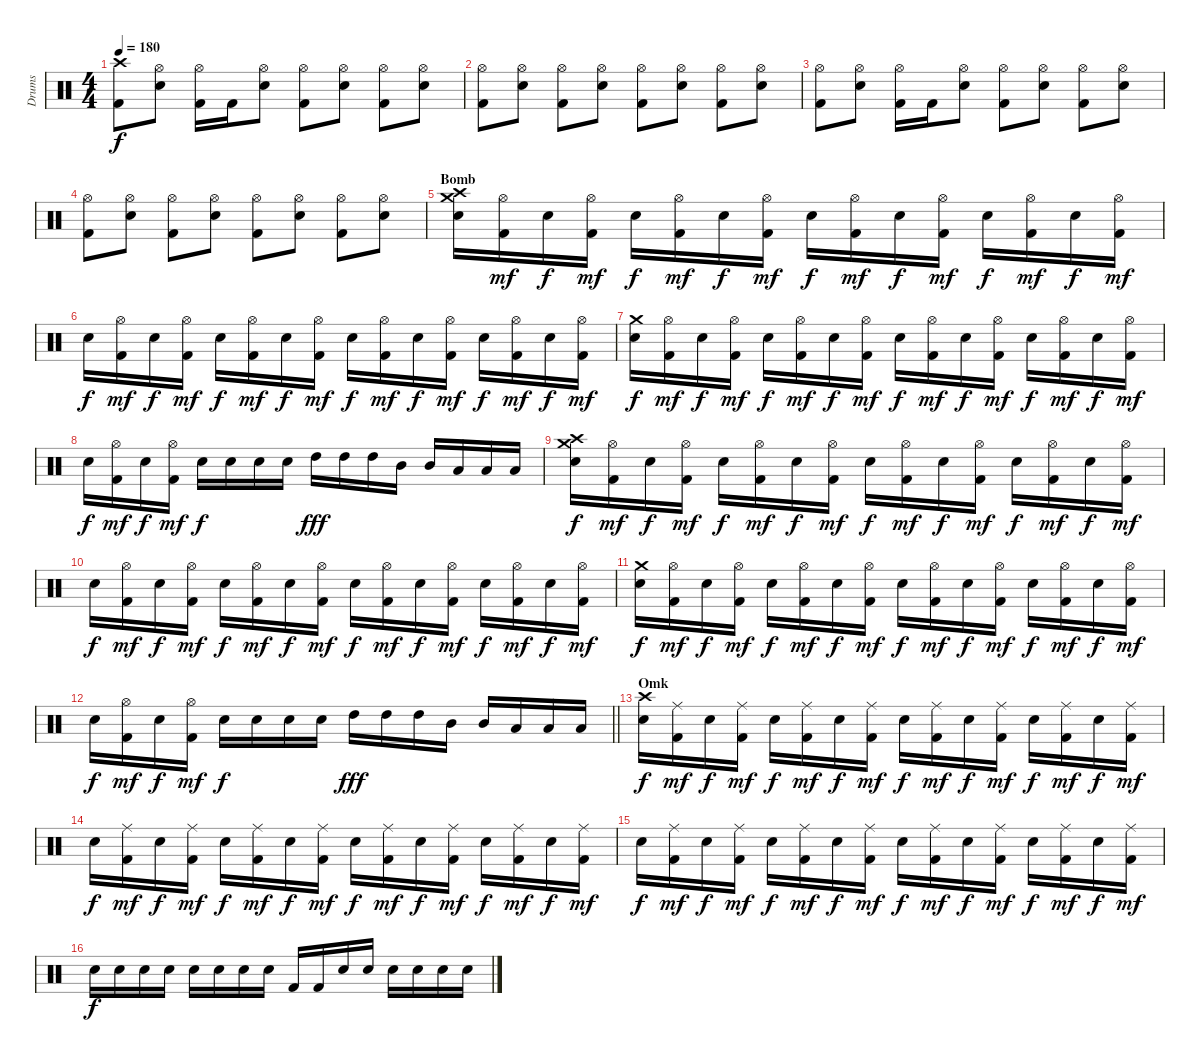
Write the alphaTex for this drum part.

\track ("Drums" "Drums") {instrument percussion}
\staff {score}
\articulation defaults
\ts (4 4)
\tempo 180
\clef neutral
\ks c
("Crash high (hit)" "Kick (hit) 2").8{dy f} ("Hi-Hat (open)" "Snare (hit) 2").8 ("Hi-Hat (open)" "Kick (hit) 2").16 "Kick (hit) 2".16 ("Hi-Hat (open)" "Snare (hit) 2").8 ("Hi-Hat (open)" "Kick (hit) 2").8 ("Hi-Hat (open)" "Snare (hit) 2").8 ("Hi-Hat (open)" "Kick (hit) 2").8 ("Hi-Hat (open)" "Snare (hit) 2").8 |
("Hi-Hat (open)" "Kick (hit) 2").8 ("Hi-Hat (open)" "Snare (hit) 2").8 ("Hi-Hat (open)" "Kick (hit) 2").8 ("Hi-Hat (open)" "Snare (hit) 2").8 ("Hi-Hat (open)" "Kick (hit) 2").8 ("Hi-Hat (open)" "Snare (hit) 2").8 ("Hi-Hat (open)" "Kick (hit) 2").8 ("Hi-Hat (open)" "Snare (hit) 2").8 |
("Hi-Hat (open)" "Kick (hit) 2").8 ("Hi-Hat (open)" "Snare (hit) 2").8 ("Hi-Hat (open)" "Kick (hit) 2").16 "Kick (hit) 2".16 ("Hi-Hat (open)" "Snare (hit) 2").8 ("Hi-Hat (open)" "Kick (hit) 2").8 ("Hi-Hat (open)" "Snare (hit) 2").8 ("Hi-Hat (open)" "Kick (hit) 2").8 ("Hi-Hat (open)" "Snare (hit) 2").8 |
("Hi-Hat (open)" "Kick (hit) 2").8 ("Hi-Hat (open)" "Snare (hit) 2").8 ("Hi-Hat (open)" "Kick (hit) 2").8 ("Hi-Hat (open)" "Snare (hit) 2").8 ("Hi-Hat (open)" "Kick (hit) 2").8 ("Hi-Hat (open)" "Snare (hit) 2").8 ("Hi-Hat (open)" "Kick (hit) 2").8 ("Hi-Hat (open)" "Snare (hit) 2").8 |
\section ("" "Bomb")
("Crash medium (hit)" "Crash high (hit)" "Snare (hit) 2").16 ("Hi-Hat (open)" "Kick (hit) 2").16{dy mf} "Snare (hit) 2".16{dy f} ("Hi-Hat (open)" "Kick (hit) 2").16{dy mf} "Snare (hit) 2".16{dy f} ("Hi-Hat (open)" "Kick (hit) 2").16{dy mf} "Snare (hit) 2".16{dy f} ("Hi-Hat (open)" "Kick (hit) 2").16{dy mf} "Snare (hit) 2".16{dy f} ("Hi-Hat (open)" "Kick (hit) 2").16{dy mf} "Snare (hit) 2".16{dy f} ("Hi-Hat (open)" "Kick (hit) 2").16{dy mf} "Snare (hit) 2".16{dy f} ("Hi-Hat (open)" "Kick (hit) 2").16{dy mf} "Snare (hit) 2".16{dy f} ("Hi-Hat (open)" "Kick (hit) 2").16{dy mf} |
"Snare (hit) 2".16{dy f} ("Hi-Hat (open)" "Kick (hit) 2").16{dy mf} "Snare (hit) 2".16{dy f} ("Hi-Hat (open)" "Kick (hit) 2").16{dy mf} "Snare (hit) 2".16{dy f} ("Hi-Hat (open)" "Kick (hit) 2").16{dy mf} "Snare (hit) 2".16{dy f} ("Hi-Hat (open)" "Kick (hit) 2").16{dy mf} "Snare (hit) 2".16{dy f} ("Hi-Hat (open)" "Kick (hit) 2").16{dy mf} "Snare (hit) 2".16{dy f} ("Hi-Hat (open)" "Kick (hit) 2").16{dy mf} "Snare (hit) 2".16{dy f} ("Hi-Hat (open)" "Kick (hit) 2").16{dy mf} "Snare (hit) 2".16{dy f} ("Hi-Hat (open)" "Kick (hit) 2").16{dy mf} |
("Crash medium (hit)" "Snare (hit) 2").16{dy f} ("Hi-Hat (open)" "Kick (hit) 2").16{dy mf} "Snare (hit) 2".16{dy f} ("Hi-Hat (open)" "Kick (hit) 2").16{dy mf} "Snare (hit) 2".16{dy f} ("Hi-Hat (open)" "Kick (hit) 2").16{dy mf} "Snare (hit) 2".16{dy f} ("Hi-Hat (open)" "Kick (hit) 2").16{dy mf} "Snare (hit) 2".16{dy f} ("Hi-Hat (open)" "Kick (hit) 2").16{dy mf} "Snare (hit) 2".16{dy f} ("Hi-Hat (open)" "Kick (hit) 2").16{dy mf} "Snare (hit) 2".16{dy f} ("Hi-Hat (open)" "Kick (hit) 2").16{dy mf} "Snare (hit) 2".16{dy f} ("Hi-Hat (open)" "Kick (hit) 2").16{dy mf} |
"Snare (hit) 2".16{dy f} ("Hi-Hat (open)" "Kick (hit) 2").16{dy mf} "Snare (hit) 2".16{dy f} ("Hi-Hat (open)" "Kick (hit) 2").16{dy mf} "Snare (hit) 2".16{dy f} "Snare (hit) 2".16 "Snare (hit) 2".16 "Snare (hit) 2".16 "High Tom (hit)".16{dy fff} "High Tom (hit)".16 "High Tom (hit)".16 "Mid Tom (hit)".16 "Mid Tom (hit)".16 "Low Tom (hit)".16 "Low Tom (hit)".16 "Low Tom (hit)".16 |
("Crash medium (hit)" "Crash high (hit)" "Snare (hit) 2").16{dy f} ("Hi-Hat (open)" "Kick (hit) 2").16{dy mf} "Snare (hit) 2".16{dy f} ("Hi-Hat (open)" "Kick (hit) 2").16{dy mf} "Snare (hit) 2".16{dy f} ("Hi-Hat (open)" "Kick (hit) 2").16{dy mf} "Snare (hit) 2".16{dy f} ("Hi-Hat (open)" "Kick (hit) 2").16{dy mf} "Snare (hit) 2".16{dy f} ("Hi-Hat (open)" "Kick (hit) 2").16{dy mf} "Snare (hit) 2".16{dy f} ("Hi-Hat (open)" "Kick (hit) 2").16{dy mf} "Snare (hit) 2".16{dy f} ("Hi-Hat (open)" "Kick (hit) 2").16{dy mf} "Snare (hit) 2".16{dy f} ("Hi-Hat (open)" "Kick (hit) 2").16{dy mf} |
"Snare (hit) 2".16{dy f} ("Hi-Hat (open)" "Kick (hit) 2").16{dy mf} "Snare (hit) 2".16{dy f} ("Hi-Hat (open)" "Kick (hit) 2").16{dy mf} "Snare (hit) 2".16{dy f} ("Hi-Hat (open)" "Kick (hit) 2").16{dy mf} "Snare (hit) 2".16{dy f} ("Hi-Hat (open)" "Kick (hit) 2").16{dy mf} "Snare (hit) 2".16{dy f} ("Hi-Hat (open)" "Kick (hit) 2").16{dy mf} "Snare (hit) 2".16{dy f} ("Hi-Hat (open)" "Kick (hit) 2").16{dy mf} "Snare (hit) 2".16{dy f} ("Hi-Hat (open)" "Kick (hit) 2").16{dy mf} "Snare (hit) 2".16{dy f} ("Hi-Hat (open)" "Kick (hit) 2").16{dy mf} |
("Crash medium (hit)" "Snare (hit) 2").16{dy f} ("Hi-Hat (open)" "Kick (hit) 2").16{dy mf} "Snare (hit) 2".16{dy f} ("Hi-Hat (open)" "Kick (hit) 2").16{dy mf} "Snare (hit) 2".16{dy f} ("Hi-Hat (open)" "Kick (hit) 2").16{dy mf} "Snare (hit) 2".16{dy f} ("Hi-Hat (open)" "Kick (hit) 2").16{dy mf} "Snare (hit) 2".16{dy f} ("Hi-Hat (open)" "Kick (hit) 2").16{dy mf} "Snare (hit) 2".16{dy f} ("Hi-Hat (open)" "Kick (hit) 2").16{dy mf} "Snare (hit) 2".16{dy f} ("Hi-Hat (open)" "Kick (hit) 2").16{dy mf} "Snare (hit) 2".16{dy f} ("Hi-Hat (open)" "Kick (hit) 2").16{dy mf} |
\barLineRight lightlight "Snare (hit) 2".16{dy f}
("Hi-Hat (open)" "Kick (hit) 2").16{dy mf} "Snare (hit) 2".16{dy f} ("Hi-Hat (open)" "Kick (hit) 2").16{dy mf} "Snare (hit) 2".16{dy f} "Snare (hit) 2".16 "Snare (hit) 2".16 "Snare (hit) 2".16 "High Tom (hit)".16{dy fff} "High Tom (hit)".16 "High Tom (hit)".16 "Mid Tom (hit)".16 "Mid Tom (hit)".16 "Low Tom (hit)".16 "Low Tom (hit)".16 "Low Tom (hit)".16 |
\section ("" "Omk")
("Crash high (hit)" "Snare (hit) 2").16{dy f} ("Ride (middle)" "Kick (hit) 2").16{dy mf} "Snare (hit) 2".16{dy f} ("Ride (middle)" "Kick (hit) 2").16{dy mf} "Snare (hit) 2".16{dy f} ("Ride (middle)" "Kick (hit) 2").16{dy mf} "Snare (hit) 2".16{dy f} ("Ride (middle)" "Kick (hit) 2").16{dy mf} "Snare (hit) 2".16{dy f} ("Ride (middle)" "Kick (hit) 2").16{dy mf} "Snare (hit) 2".16{dy f} ("Ride (middle)" "Kick (hit) 2").16{dy mf} "Snare (hit) 2".16{dy f} ("Ride (middle)" "Kick (hit) 2").16{dy mf} "Snare (hit) 2".16{dy f} ("Ride (middle)" "Kick (hit) 2").16{dy mf} |
"Snare (hit) 2".16{dy f} ("Ride (middle)" "Kick (hit) 2").16{dy mf} "Snare (hit) 2".16{dy f} ("Ride (middle)" "Kick (hit) 2").16{dy mf} "Snare (hit) 2".16{dy f} ("Ride (middle)" "Kick (hit) 2").16{dy mf} "Snare (hit) 2".16{dy f} ("Ride (middle)" "Kick (hit) 2").16{dy mf} "Snare (hit) 2".16{dy f} ("Ride (middle)" "Kick (hit) 2").16{dy mf} "Snare (hit) 2".16{dy f} ("Ride (middle)" "Kick (hit) 2").16{dy mf} "Snare (hit) 2".16{dy f} ("Ride (middle)" "Kick (hit) 2").16{dy mf} "Snare (hit) 2".16{dy f} ("Ride (middle)" "Kick (hit) 2").16{dy mf} |
"Snare (hit) 2".16{dy f} ("Ride (middle)" "Kick (hit) 2").16{dy mf} "Snare (hit) 2".16{dy f} ("Ride (middle)" "Kick (hit) 2").16{dy mf} "Snare (hit) 2".16{dy f} ("Ride (middle)" "Kick (hit) 2").16{dy mf} "Snare (hit) 2".16{dy f} ("Ride (middle)" "Kick (hit) 2").16{dy mf} "Snare (hit) 2".16{dy f} ("Ride (middle)" "Kick (hit) 2").16{dy mf} "Snare (hit) 2".16{dy f} ("Ride (middle)" "Kick (hit) 2").16{dy mf} "Snare (hit) 2".16{dy f} ("Ride (middle)" "Kick (hit) 2").16{dy mf} "Snare (hit) 2".16{dy f} ("Ride (middle)" "Kick (hit) 2").16{dy mf} |
"Snare (hit) 2".16{dy f} "Snare (hit) 2".16 "Snare (hit) 2".16 "Snare (hit) 2".16 "Snare (hit) 2".16 "Snare (hit) 2".16 "Snare (hit) 2".16 "Snare (hit) 2".16 "Kick (hit) 2".16 "Kick (hit) 2".16 "Snare (hit) 2".16 "Snare (hit) 2".16 "Snare (hit) 2".16 "Snare (hit) 2".16 "Snare (hit) 2".16 "Snare (hit) 2".16
